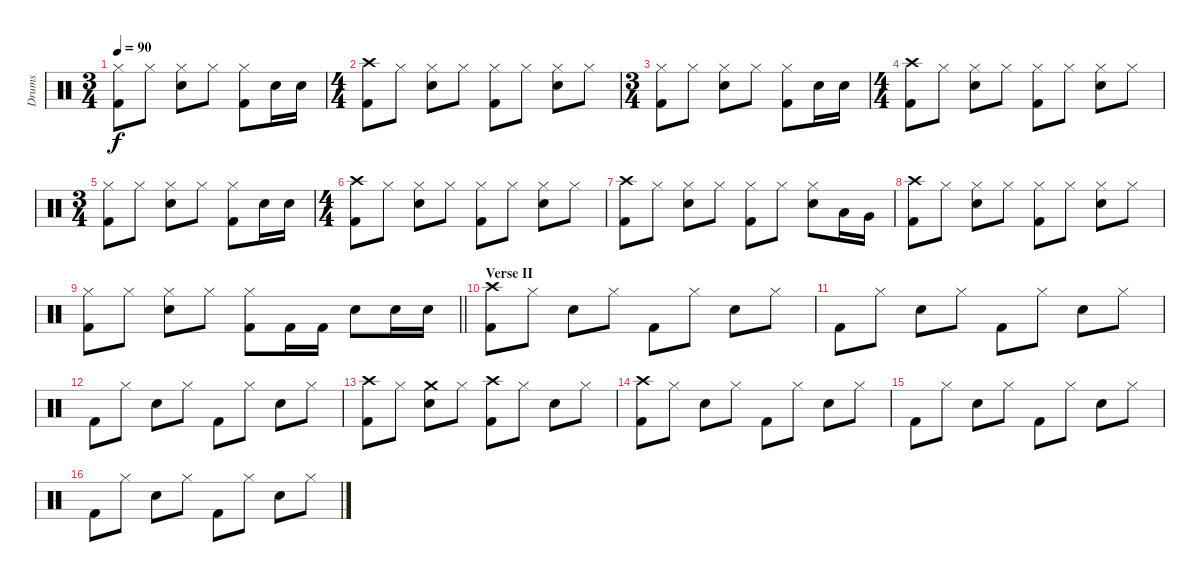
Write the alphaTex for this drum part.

\track ("Drums" "Drums") {instrument percussion}
\staff {score}
\articulation defaults
\ts (3 4)
\tempo 90
\clef neutral
\ks c
("Hi-Hat (closed)" "Kick (hit) 2").8{dy f} "Hi-Hat (closed)".8 ("Hi-Hat (closed)" "Snare (hit) 2").8 "Hi-Hat (closed)".8 ("Hi-Hat (closed)" "Kick (hit) 2").8 "Snare (hit) 2".16 "Snare (hit) 2".16 |
\ts (4 4)
("Crash high (hit)" "Kick (hit) 2").8 "Hi-Hat (closed)".8 ("Hi-Hat (closed)" "Snare (hit) 2").8 "Hi-Hat (closed)".8 ("Hi-Hat (closed)" "Kick (hit) 2").8 "Hi-Hat (closed)".8 ("Hi-Hat (closed)" "Snare (hit) 2").8 "Hi-Hat (closed)".8 |
\ts (3 4)
("Hi-Hat (closed)" "Kick (hit) 2").8 "Hi-Hat (closed)".8 ("Hi-Hat (closed)" "Snare (hit) 2").8 "Hi-Hat (closed)".8 ("Hi-Hat (closed)" "Kick (hit) 2").8 "Snare (hit) 2".16 "Snare (hit) 2".16 |
\ts (4 4)
("Crash high (hit)" "Kick (hit) 2").8 "Hi-Hat (closed)".8 ("Hi-Hat (closed)" "Snare (hit) 2").8 "Hi-Hat (closed)".8 ("Hi-Hat (closed)" "Kick (hit) 2").8 "Hi-Hat (closed)".8 ("Hi-Hat (closed)" "Snare (hit) 2").8 "Hi-Hat (closed)".8 |
\ts (3 4)
("Hi-Hat (closed)" "Kick (hit) 2").8 "Hi-Hat (closed)".8 ("Hi-Hat (closed)" "Snare (hit) 2").8 "Hi-Hat (closed)".8 ("Hi-Hat (closed)" "Kick (hit) 2").8 "Snare (hit) 2".16 "Snare (hit) 2".16 |
\ts (4 4)
("Crash high (hit)" "Kick (hit) 2").8 "Hi-Hat (closed)".8 ("Hi-Hat (closed)" "Snare (hit) 2").8 "Hi-Hat (closed)".8 ("Hi-Hat (closed)" "Kick (hit) 2").8 "Hi-Hat (closed)".8 ("Hi-Hat (closed)" "Snare (hit) 2").8 "Hi-Hat (closed)".8 |
("Crash high (hit)" "Kick (hit) 2").8 "Hi-Hat (closed)".8 ("Hi-Hat (closed)" "Snare (hit) 2").8 "Hi-Hat (closed)".8 ("Hi-Hat (closed)" "Kick (hit) 2").8 "Hi-Hat (closed)".8 ("Hi-Hat (closed)" "Snare (hit) 2").8 "Low Tom (hit)".16 "Very Low Tom (hit)".16 |
("Crash high (hit)" "Kick (hit) 2").8 "Hi-Hat (closed)".8 ("Hi-Hat (closed)" "Snare (hit) 2").8 "Hi-Hat (closed)".8 ("Hi-Hat (closed)" "Kick (hit) 2").8 "Hi-Hat (closed)".8 ("Hi-Hat (closed)" "Snare (hit) 2").8 "Hi-Hat (closed)".8 |
\barLineRight lightlight
("Hi-Hat (closed)" "Kick (hit) 2").8 "Hi-Hat (closed)".8 ("Hi-Hat (closed)" "Snare (hit) 2").8 "Hi-Hat (closed)".8 ("Hi-Hat (closed)" "Kick (hit) 2").8 "Kick (hit) 2".16 "Kick (hit) 2".16 "Snare (hit) 2".8 "Snare (hit) 2".16 "Snare (hit) 2".16 |
\section ("" "Verse II")
("Crash high (hit)" "Kick (hit) 2").8 "Hi-Hat (closed)".8 "Snare (hit) 2".8 "Hi-Hat (closed)".8 "Kick (hit) 2".8 "Hi-Hat (closed)".8 "Snare (hit) 2".8 "Hi-Hat (closed)".8 |
"Kick (hit) 2".8 "Hi-Hat (closed)".8 "Snare (hit) 2".8 "Hi-Hat (closed)".8 "Kick (hit) 2".8 "Hi-Hat (closed)".8 "Snare (hit) 2".8 "Hi-Hat (closed)".8 |
"Kick (hit) 2".8 "Hi-Hat (closed)".8 "Snare (hit) 2".8 "Hi-Hat (closed)".8 "Kick (hit) 2".8 "Hi-Hat (closed)".8 "Snare (hit) 2".8 "Hi-Hat (closed)".8 |
("Crash high (hit)" "Kick (hit) 2").8 "Hi-Hat (closed)".8 ("Crash medium (hit)" "Snare (hit) 2").8 "Hi-Hat (closed)".8 ("Crash high (hit)" "Kick (hit) 2").8 "Hi-Hat (closed)".8 "Snare (hit) 2".8 "Hi-Hat (closed)".8 |
("Crash high (hit)" "Kick (hit) 2").8 "Hi-Hat (closed)".8 "Snare (hit) 2".8 "Hi-Hat (closed)".8 "Kick (hit) 2".8 "Hi-Hat (closed)".8 "Snare (hit) 2".8 "Hi-Hat (closed)".8 |
"Kick (hit) 2".8 "Hi-Hat (closed)".8 "Snare (hit) 2".8 "Hi-Hat (closed)".8 "Kick (hit) 2".8 "Hi-Hat (closed)".8 "Snare (hit) 2".8 "Hi-Hat (closed)".8 |
"Kick (hit) 2".8 "Hi-Hat (closed)".8 "Snare (hit) 2".8 "Hi-Hat (closed)".8 "Kick (hit) 2".8 "Hi-Hat (closed)".8 "Snare (hit) 2".8 "Hi-Hat (closed)".8
